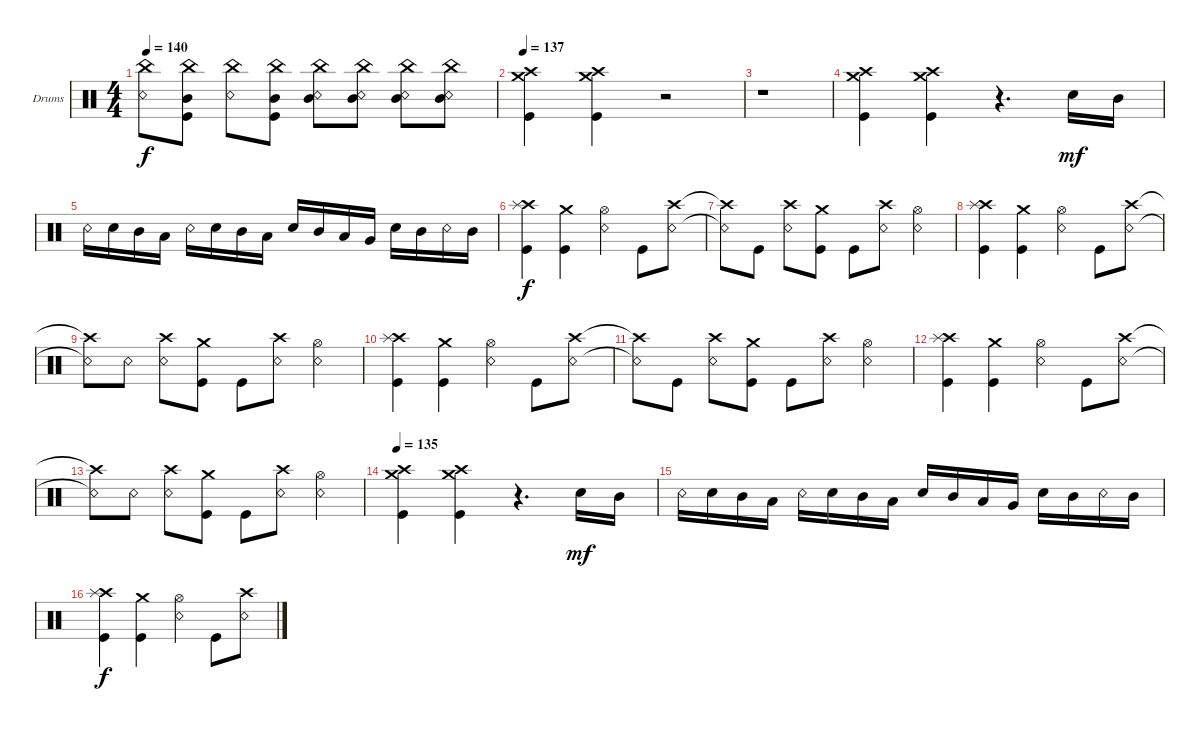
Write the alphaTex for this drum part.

\defaultSystemsLayout 4
\bracketExtendMode groupsimilarinstruments
\firstSystemTrackNameOrientation horizontal
\otherSystemsTrackNameOrientation horizontal
\track ("Drumkit" "Drums") {instrument percussion}
\staff {score}
\articulation defaults
\ts (4 4)
\tempo 140
\clef neutral
\ks c
("Snare (rim shot)" "China (hit)").8{dy f} ("Kick (hit)" "Mid Tom (hit)" "China (hit)").8 ("Snare (rim shot)" "China (hit)").8 ("Kick (hit)" "Mid Tom (hit)" "China (hit)").8 ("Snare (rim shot)" "China (hit)" "Mid Tom (hit)").8 ("Mid Tom (hit)" "China (hit)" "Snare (rim shot)").8 ("Snare (rim shot)" "China (hit)" "Mid Tom (hit)").8 ("Mid Tom (hit)" "China (hit)" "Snare (rim shot)").8 |
\tempo 137
("Kick (hit)" "Crash medium (hit)" "Crash high (hit)").4 ("Crash high (hit)" "Crash medium (hit)" "Kick (hit)").4 r.2 |
r.1 |
("Kick (hit)" "Crash medium (hit)" "Crash high (hit)").4 ("Crash high (hit)" "Crash medium (hit)" "Kick (hit)").4 r.4{d} "Snare (hit) 2".16{dy mf} "Mid Tom (hit)".16 |
"Snare (rim shot)".16 "Snare (hit) 2".16 "Mid Tom (hit)".16 "Low Tom (hit)".16 "Snare (rim shot)".16 "Snare (hit) 2".16 "Mid Tom (hit)".16 "Low Tom (hit)".16 "Snare (hit) 2".16 "Mid Tom (hit)".16 "Low Tom (hit)".16 "Very Low Tom (hit)".16 "Snare (hit) 2".16 "Mid Tom (hit)".16 "Snare (rim shot)".16 "Mid Tom (hit)".16 |
("Kick (hit)" "Crash high (hit)" "Splash (hit)").4{dy f} ("Crash medium (hit)" "Kick (hit)").4 ("Snare (rim shot)" "Hi-Hat (open)").4 "Kick (hit)".8 ("Crash high (hit)" "Snare (rim shot)").8 |
("Crash high (hit)"{t} "Snare (rim shot)"{t}).8 "Kick (hit)".8 ("Crash high (hit)" "Snare (rim shot)").8 ("Kick (hit)" "Crash medium (hit)").8 "Kick (hit)".8 ("Crash high (hit)" "Snare (rim shot)").8 ("Snare (rim shot)" "Hi-Hat (open)").4 |
("Kick (hit)" "Crash high (hit)" "Splash (hit)").4 ("Crash medium (hit)" "Kick (hit)").4 ("Snare (rim shot)" "Hi-Hat (open)").4 "Kick (hit)".8 ("Crash high (hit)" "Snare (rim shot)").8 |
("Crash high (hit)"{t} "Snare (rim shot)"{t}).8 "Snare (rim shot)".8 ("Crash high (hit)" "Snare (rim shot)").8 ("Kick (hit)" "Crash medium (hit)").8 "Kick (hit)".8 ("Crash high (hit)" "Snare (rim shot)").8 ("Snare (rim shot)" "Hi-Hat (open)").4 |
("Kick (hit)" "Crash high (hit)" "Splash (hit)").4 ("Crash medium (hit)" "Kick (hit)").4 ("Snare (rim shot)" "Hi-Hat (open)").4 "Kick (hit)".8 ("Crash high (hit)" "Snare (rim shot)").8 |
("Crash high (hit)"{t} "Snare (rim shot)"{t}).8 "Kick (hit)".8 ("Crash high (hit)" "Snare (rim shot)").8 ("Kick (hit)" "Crash medium (hit)").8 "Kick (hit)".8 ("Crash high (hit)" "Snare (rim shot)").8 ("Snare (rim shot)" "Hi-Hat (open)").4 |
("Kick (hit)" "Crash high (hit)" "Splash (hit)").4 ("Crash medium (hit)" "Kick (hit)").4 ("Snare (rim shot)" "Hi-Hat (open)").4 "Kick (hit)".8 ("Crash high (hit)" "Snare (rim shot)").8 |
("Crash high (hit)"{t} "Snare (rim shot)"{t}).8 "Snare (rim shot)".8 ("Crash high (hit)" "Snare (rim shot)").8 ("Kick (hit)" "Crash medium (hit)").8 "Kick (hit)".8 ("Crash high (hit)" "Snare (rim shot)").8 ("Snare (rim shot)" "Hi-Hat (open)").4 |
\tempo 135
("Kick (hit)" "Crash medium (hit)" "Crash high (hit)").4 ("Crash high (hit)" "Crash medium (hit)" "Kick (hit)").4 r.4{d} "Snare (hit) 2".16{dy mf} "Mid Tom (hit)".16 |
"Snare (rim shot)".16 "Snare (hit) 2".16 "Mid Tom (hit)".16 "Low Tom (hit)".16 "Snare (rim shot)".16 "Snare (hit) 2".16 "Mid Tom (hit)".16 "Low Tom (hit)".16 "Snare (hit) 2".16 "Mid Tom (hit)".16 "Low Tom (hit)".16 "Very Low Tom (hit)".16 "Snare (hit) 2".16 "Mid Tom (hit)".16 "Snare (rim shot)".16 "Mid Tom (hit)".16 |
("Kick (hit)" "Crash high (hit)" "Splash (hit)").4{dy f} ("Crash medium (hit)" "Kick (hit)").4 ("Snare (rim shot)" "Hi-Hat (open)").4 "Kick (hit)".8 ("Crash high (hit)" "Snare (rim shot)").8
